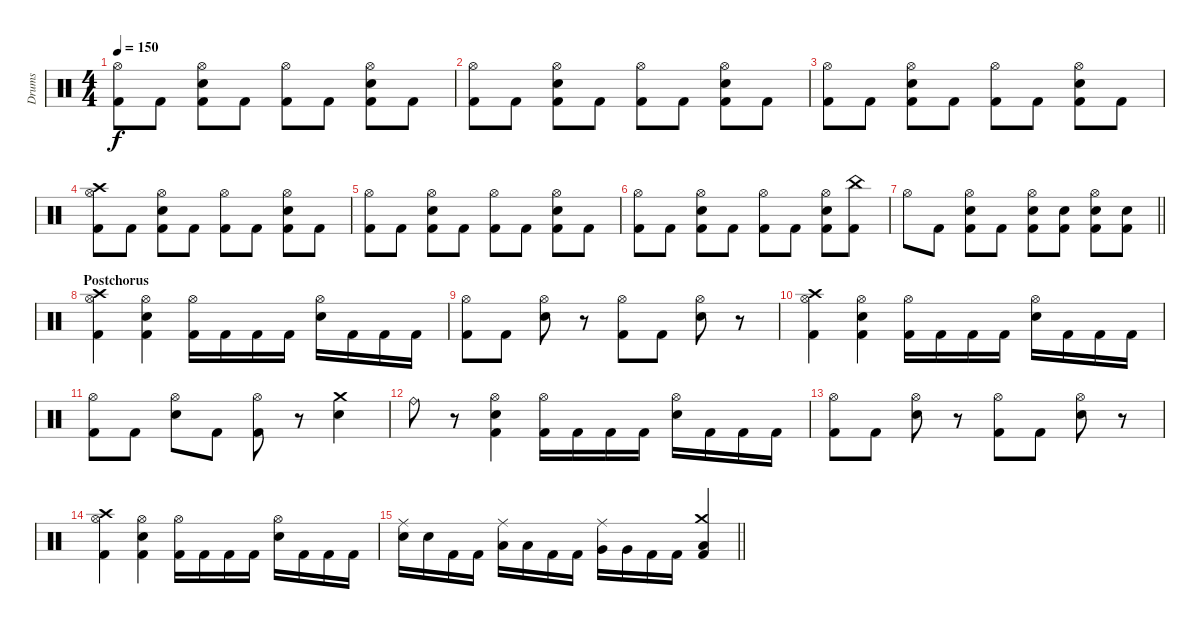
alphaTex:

\track ("Drums" "Drums") {instrument percussion}
\staff {score}
\articulation defaults
\ts (4 4)
\tempo 150
\clef neutral
\ks c
("Hi-Hat (open)" "Kick (hit) 2").8{dy f} "Kick (hit) 2".8 ("Hi-Hat (open)" "Snare (hit) 2" "Kick (hit) 2").8 "Kick (hit) 2".8 ("Hi-Hat (open)" "Kick (hit) 2").8 "Kick (hit) 2".8 ("Hi-Hat (open)" "Snare (hit) 2" "Kick (hit) 2").8 "Kick (hit) 2".8 |
("Hi-Hat (open)" "Kick (hit) 2").8 "Kick (hit) 2".8 ("Hi-Hat (open)" "Snare (hit) 2" "Kick (hit) 2").8 "Kick (hit) 2".8 ("Hi-Hat (open)" "Kick (hit) 2").8 "Kick (hit) 2".8 ("Hi-Hat (open)" "Snare (hit) 2" "Kick (hit) 2").8 "Kick (hit) 2".8 |
("Hi-Hat (open)" "Kick (hit) 2").8 "Kick (hit) 2".8 ("Hi-Hat (open)" "Snare (hit) 2" "Kick (hit) 2").8 "Kick (hit) 2".8 ("Hi-Hat (open)" "Kick (hit) 2").8 "Kick (hit) 2".8 ("Hi-Hat (open)" "Snare (hit) 2" "Kick (hit) 2").8 "Kick (hit) 2".8 |
("Crash high (hit)" "Hi-Hat (open)" "Kick (hit) 2").8 "Kick (hit) 2".8 ("Hi-Hat (open)" "Snare (hit) 2" "Kick (hit) 2").8 "Kick (hit) 2".8 ("Hi-Hat (open)" "Kick (hit) 2").8 "Kick (hit) 2".8 ("Hi-Hat (open)" "Snare (hit) 2" "Kick (hit) 2").8 "Kick (hit) 2".8 |
("Hi-Hat (open)" "Kick (hit) 2").8 "Kick (hit) 2".8 ("Hi-Hat (open)" "Snare (hit) 2" "Kick (hit) 2").8 "Kick (hit) 2".8 ("Hi-Hat (open)" "Kick (hit) 2").8 "Kick (hit) 2".8 ("Hi-Hat (open)" "Snare (hit) 2" "Kick (hit) 2").8 "Kick (hit) 2".8 |
("Hi-Hat (open)" "Kick (hit) 2").8 "Kick (hit) 2".8 ("Hi-Hat (open)" "Snare (hit) 2" "Kick (hit) 2").8 "Kick (hit) 2".8 ("Hi-Hat (open)" "Kick (hit) 2").8 "Kick (hit) 2".8 ("Hi-Hat (open)" "Snare (hit) 2" "Kick (hit) 2").8 ("China (hit)" "Kick (hit) 2").8 |
\barLineRight lightlight "Hi-Hat (open)".8 "Kick (hit) 2".8
("Hi-Hat (open)" "Snare (hit) 2" "Kick (hit) 2").8 "Kick (hit) 2".8 ("Hi-Hat (open)" "Snare (hit) 2" "Kick (hit) 2").8 ("Snare (hit) 2" "Kick (hit) 2").8 ("Hi-Hat (open)" "Snare (hit) 2" "Kick (hit) 2").8 ("Snare (hit) 2" "Kick (hit) 2").8 |
\section ("" "Postchorus")
("Crash high (hit)" "Hi-Hat (open)" "Kick (hit) 2").4 ("Hi-Hat (open)" "Snare (hit) 2" "Kick (hit) 2").4 ("Hi-Hat (open)" "Kick (hit) 2").16 "Kick (hit) 2".16 "Kick (hit) 2".16 "Kick (hit) 2".16 ("Hi-Hat (open)" "Snare (hit) 2").16 "Kick (hit) 2".16 "Kick (hit) 2".16 "Kick (hit) 2".16 |
("Hi-Hat (open)" "Kick (hit) 2").8 "Kick (hit) 2".8 ("Hi-Hat (open)" "Snare (hit) 2").8 r.8 ("Hi-Hat (open)" "Kick (hit) 2").8 "Kick (hit) 2".8 ("Hi-Hat (open)" "Snare (hit) 2").8 r.8 |
("Crash high (hit)" "Hi-Hat (open)" "Kick (hit) 2").4 ("Hi-Hat (open)" "Snare (hit) 2" "Kick (hit) 2").4 ("Hi-Hat (open)" "Kick (hit) 2").16 "Kick (hit) 2".16 "Kick (hit) 2".16 "Kick (hit) 2".16 ("Hi-Hat (open)" "Snare (hit) 2").16 "Kick (hit) 2".16 "Kick (hit) 2".16 "Kick (hit) 2".16 |
("Hi-Hat (open)" "Kick (hit) 2").8 "Kick (hit) 2".8 ("Hi-Hat (open)" "Snare (hit) 2").8 "Kick (hit) 2".8 ("Hi-Hat (open)" "Kick (hit) 2").8 r.8 ("Crash medium (hit)" "Snare (hit) 2").4 |
"Ride (bell)".8 r.8 ("Hi-Hat (open)" "Snare (hit) 2" "Kick (hit) 2").4 ("Hi-Hat (open)" "Kick (hit) 2").16 "Kick (hit) 2".16 "Kick (hit) 2".16 "Kick (hit) 2".16 ("Hi-Hat (open)" "Snare (hit) 2").16 "Kick (hit) 2".16 "Kick (hit) 2".16 "Kick (hit) 2".16 |
("Hi-Hat (open)" "Kick (hit) 2").8 "Kick (hit) 2".8 ("Hi-Hat (open)" "Snare (hit) 2").8 r.8 ("Hi-Hat (open)" "Kick (hit) 2").8 "Kick (hit) 2".8 ("Hi-Hat (open)" "Snare (hit) 2").8 r.8 |
("Crash high (hit)" "Hi-Hat (open)" "Kick (hit) 2").4 ("Hi-Hat (open)" "Snare (hit) 2" "Kick (hit) 2").4 ("Hi-Hat (open)" "Kick (hit) 2").16 "Kick (hit) 2".16 "Kick (hit) 2".16 "Kick (hit) 2".16 ("Hi-Hat (open)" "Snare (hit) 2").16 "Kick (hit) 2".16 "Kick (hit) 2".16 "Kick (hit) 2".16 |
\barLineRight lightlight
("Ride (middle)" "Snare (hit) 2").16 "Snare (hit) 2".16 "Kick (hit) 2".16 "Kick (hit) 2".16 ("Ride (middle)" "Low Tom (hit)").16 "Low Tom (hit)".16 "Kick (hit) 2".16 "Kick (hit) 2".16 ("Ride (middle)" "Very Low Tom (hit)").16 "Very Low Tom (hit)".16 "Kick (hit) 2".16 "Kick (hit) 2".16 ("Crash medium (hit)" "Low Floor Tom (hit)" "Kick (hit) 2").4
